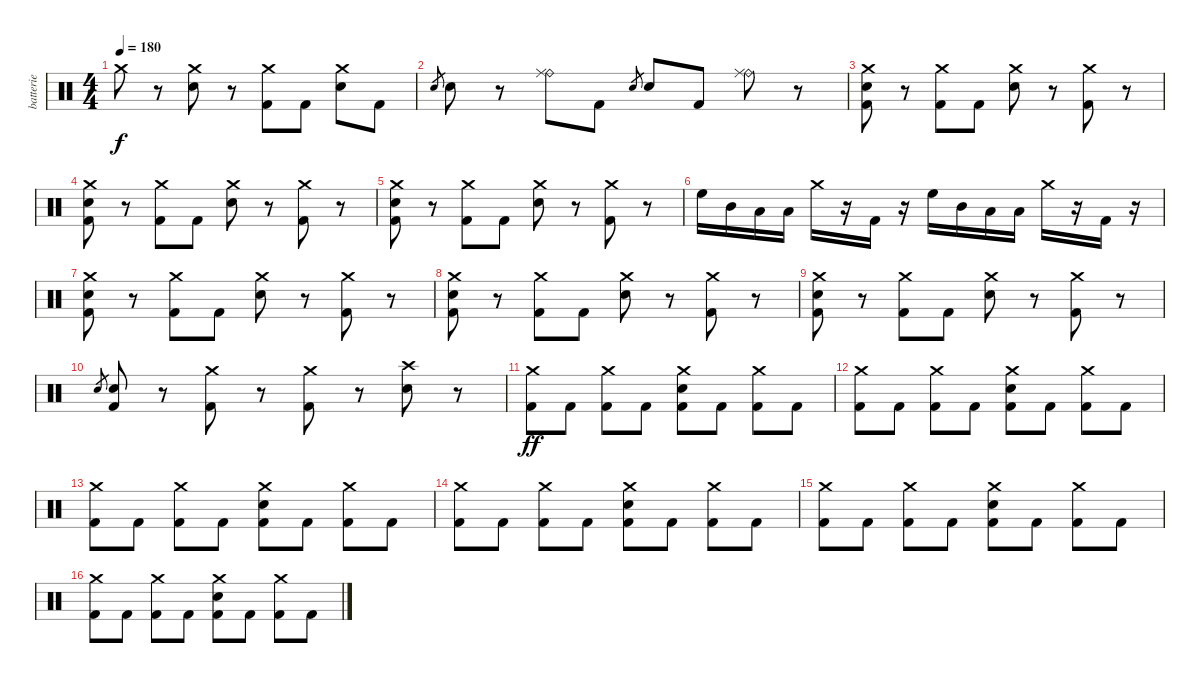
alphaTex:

\track ("batterie" "batterie") {instrument percussion}
\staff {score}
\articulation defaults
\ts (4 4)
\tempo 180
\clef neutral
\ks c "Crash medium (hit)".8{dy f}
r.8 ("Crash medium (hit)" "Electric Snare (hit)").8 r.8 ("Crash medium (hit)" "Kick (hit) 2").8 "Kick (hit) 2".8 ("Crash medium (hit)" "Electric Snare (hit)").8 "Kick (hit) 2".8 |
"Electric Snare (hit)".8{gr} "Electric Snare (hit)".8 r.8 ("Ride (bell)" "Ride (middle)").8 "Kick (hit) 2".8 "Electric Snare (hit)".8{gr} "Electric Snare (hit)".8 "Kick (hit) 2".8 ("Ride (bell)" "Ride (middle)").8 r.8 |
("Crash medium (hit)" "Electric Snare (hit)" "Kick (hit) 2").8 r.8 ("Crash medium (hit)" "Kick (hit) 2").8 "Kick (hit) 2".8 ("Crash medium (hit)" "Electric Snare (hit)").8 r.8 ("Crash medium (hit)" "Kick (hit) 2").8 r.8 |
("Crash medium (hit)" "Electric Snare (hit)" "Kick (hit) 2").8 r.8 ("Crash medium (hit)" "Kick (hit) 2").8 "Kick (hit) 2".8 ("Crash medium (hit)" "Electric Snare (hit)").8 r.8 ("Crash medium (hit)" "Kick (hit) 2").8 r.8 |
("Crash medium (hit)" "Electric Snare (hit)" "Kick (hit) 2").8 r.8 ("Crash medium (hit)" "Kick (hit) 2").8 "Kick (hit) 2".8 ("Crash medium (hit)" "Electric Snare (hit)").8 r.8 ("Crash medium (hit)" "Kick (hit) 2").8 r.8 |
"High Floor Tom (hit)".16 "Mid Tom (hit)".16 "Low Tom (hit)".16 "Low Tom (hit)".16 "Crash medium (hit)".16 r.16 "Kick (hit) 2".16 r.16 "High Floor Tom (hit)".16 "Mid Tom (hit)".16 "Low Tom (hit)".16 "Low Tom (hit)".16 "Crash medium (hit)".16 r.16 "Kick (hit) 2".16 r.16 |
("Crash medium (hit)" "Electric Snare (hit)" "Kick (hit) 2").8 r.8 ("Crash medium (hit)" "Kick (hit) 2").8 "Kick (hit) 2".8 ("Crash medium (hit)" "Electric Snare (hit)").8 r.8 ("Crash medium (hit)" "Kick (hit) 2").8 r.8 |
("Crash medium (hit)" "Electric Snare (hit)" "Kick (hit) 2").8 r.8 ("Crash medium (hit)" "Kick (hit) 2").8 "Kick (hit) 2".8 ("Crash medium (hit)" "Electric Snare (hit)").8 r.8 ("Crash medium (hit)" "Kick (hit) 2").8 r.8 |
("Crash medium (hit)" "Electric Snare (hit)" "Kick (hit) 2").8 r.8 ("Crash medium (hit)" "Kick (hit) 2").8 "Kick (hit) 2".8 ("Crash medium (hit)" "Electric Snare (hit)").8 r.8 ("Crash medium (hit)" "Kick (hit) 2").8 r.8 |
"Electric Snare (hit)".8{gr} ("Electric Snare (hit)" "Kick (hit) 2").8 r.8 ("Crash medium (hit)" "Kick (hit) 2").8 r.8 ("Crash medium (hit)" "Kick (hit) 2").8 r.8 ("Crash high (hit)" "Electric Snare (hit)").8 r.8 |
("Crash medium (hit)" "Kick (hit) 2").8{dy ff} "Kick (hit) 2".8 ("Crash medium (hit)" "Kick (hit) 2").8 "Kick (hit) 2".8 ("Crash medium (hit)" "Electric Snare (hit)" "Kick (hit) 2").8 "Kick (hit) 2".8 ("Crash medium (hit)" "Kick (hit) 2").8 "Kick (hit) 2".8 |
("Crash medium (hit)" "Kick (hit) 2").8 "Kick (hit) 2".8 ("Crash medium (hit)" "Kick (hit) 2").8 "Kick (hit) 2".8 ("Crash medium (hit)" "Electric Snare (hit)" "Kick (hit) 2").8 "Kick (hit) 2".8 ("Crash medium (hit)" "Kick (hit) 2").8 "Kick (hit) 2".8 |
("Crash medium (hit)" "Kick (hit) 2").8 "Kick (hit) 2".8 ("Crash medium (hit)" "Kick (hit) 2").8 "Kick (hit) 2".8 ("Crash medium (hit)" "Electric Snare (hit)" "Kick (hit) 2").8 "Kick (hit) 2".8 ("Crash medium (hit)" "Kick (hit) 2").8 "Kick (hit) 2".8 |
("Crash medium (hit)" "Kick (hit) 2").8 "Kick (hit) 2".8 ("Crash medium (hit)" "Kick (hit) 2").8 "Kick (hit) 2".8 ("Crash medium (hit)" "Electric Snare (hit)" "Kick (hit) 2").8 "Kick (hit) 2".8 ("Crash medium (hit)" "Kick (hit) 2").8 "Kick (hit) 2".8 |
("Crash medium (hit)" "Kick (hit) 2").8 "Kick (hit) 2".8 ("Crash medium (hit)" "Kick (hit) 2").8 "Kick (hit) 2".8 ("Crash medium (hit)" "Electric Snare (hit)" "Kick (hit) 2").8 "Kick (hit) 2".8 ("Crash medium (hit)" "Kick (hit) 2").8 "Kick (hit) 2".8 |
("Crash medium (hit)" "Kick (hit) 2").8 "Kick (hit) 2".8 ("Crash medium (hit)" "Kick (hit) 2").8 "Kick (hit) 2".8 ("Crash medium (hit)" "Electric Snare (hit)" "Kick (hit) 2").8 "Kick (hit) 2".8 ("Crash medium (hit)" "Kick (hit) 2").8 "Kick (hit) 2".8
